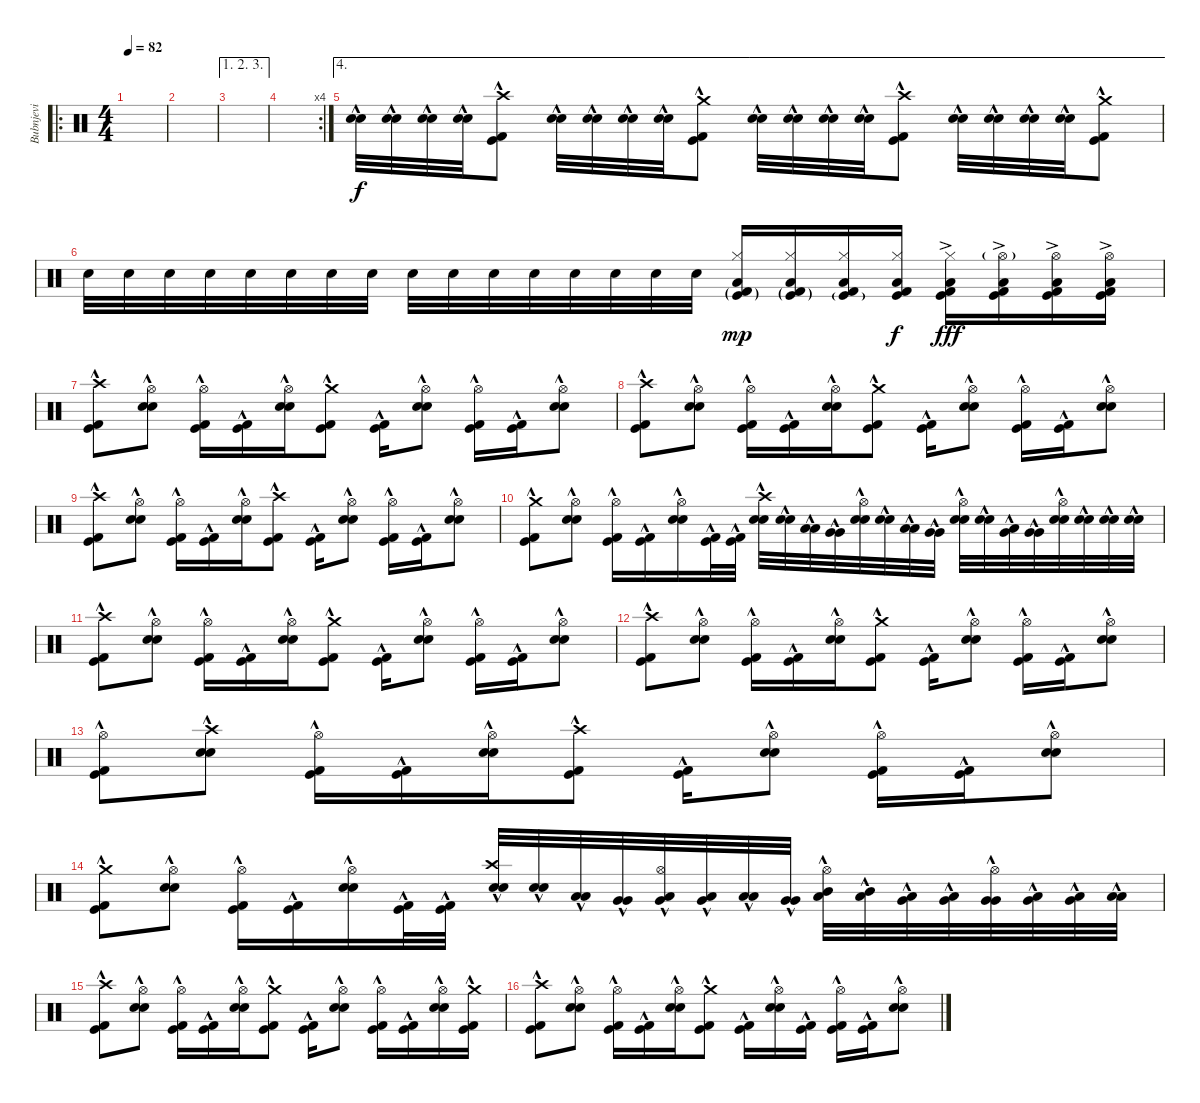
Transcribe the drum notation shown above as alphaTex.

\track ("Bubnjevi" "Bubnjevi") {instrument percussion}
\staff {score}
\articulation defaults
\ro
\ts (4 4)
\tempo 82
\clef neutral
\ks c
|
|
\ae (1 2 3)
|
\rc 4
|
\ae 4
("Electric Snare (hit)"{hac} "Electric Snare (hit)"{hac}).32 ("Electric Snare (hit)"{hac} "Electric Snare (hit)"{hac}).32 ("Electric Snare (hit)"{hac} "Electric Snare (hit)"{hac}).32 ("Electric Snare (hit)"{hac} "Electric Snare (hit)"{hac}).32 ("Crash high (hit)" "Kick (hit) 2"{hac} "Kick (hit)"{hac}).8 ("Electric Snare (hit)"{hac} "Electric Snare (hit)"{hac}).32 ("Electric Snare (hit)"{hac} "Electric Snare (hit)"{hac}).32 ("Electric Snare (hit)"{hac} "Electric Snare (hit)"{hac}).32 ("Electric Snare (hit)"{hac} "Electric Snare (hit)"{hac}).32 ("Crash medium (hit)" "Kick (hit) 2"{hac} "Kick (hit)"{hac}).8 ("Electric Snare (hit)"{hac} "Electric Snare (hit)"{hac}).32 ("Electric Snare (hit)"{hac} "Electric Snare (hit)"{hac}).32 ("Electric Snare (hit)"{hac} "Electric Snare (hit)"{hac}).32 ("Electric Snare (hit)"{hac} "Electric Snare (hit)"{hac}).32 ("Crash high (hit)" "Kick (hit) 2"{hac} "Kick (hit)"{hac}).8 ("Electric Snare (hit)"{hac} "Electric Snare (hit)"{hac}).32 ("Electric Snare (hit)"{hac} "Electric Snare (hit)"{hac}).32 ("Electric Snare (hit)"{hac} "Electric Snare (hit)"{hac}).32 ("Electric Snare (hit)"{hac} "Electric Snare (hit)"{hac}).32 ("Crash medium (hit)" "Kick (hit) 2"{hac} "Kick (hit)"{hac}).8 |
"Electric Snare (hit)".32{dy f} "Snare (hit) 2".32 "Electric Snare (hit)".32 "Snare (hit) 2".32 "Electric Snare (hit)".32 "Snare (hit) 2".32 "Electric Snare (hit)".32 "Snare (hit) 2".32 "Electric Snare (hit)".32 "Snare (hit) 2".32 "Electric Snare (hit)".32 "Snare (hit) 2".32 "Electric Snare (hit)".32 "Snare (hit) 2".32 "Electric Snare (hit)".32 "Snare (hit) 2".32 ("Hi-Hat (closed)" "Low Floor Tom (hit)" "Kick (hit) 2"{g} "Kick (hit)"{g}).16{dy mp} ("Hi-Hat (closed)" "Low Floor Tom (hit)" "Kick (hit)"{g} "Kick (hit) 2"{g}).16 ("Hi-Hat (closed)" "Low Floor Tom (hit)" "Kick (hit) 2" "Kick (hit)"{g}).16 ("Hi-Hat (closed)" "Low Floor Tom (hit)" "Kick (hit) 2" "Kick (hit)").16{dy f} ("Hi-Hat (closed)"{ac} "Low Floor Tom (hit)" "Kick (hit) 2" "Kick (hit)").16{dy fff} ("Hi-Hat (open)"{g} "Low Floor Tom (hit)" "Kick (hit) 2" "Kick (hit)"{ac}).16 ("Hi-Hat (open)" "Low Floor Tom (hit)" "Kick (hit) 2"{ac} "Kick (hit)"{ac}).16 ("Hi-Hat (open)" "Low Floor Tom (hit)"{ac} "Kick (hit) 2"{ac} "Kick (hit)"{ac}).16 |
("Crash high (hit)" "Kick (hit) 2"{hac} "Kick (hit)"{hac}).8 ("Hi-Hat (open)"{hac} "Snare (hit) 2"{hac} "Electric Snare (hit)"{hac}).8 ("Hi-Hat (open)"{hac} "Kick (hit) 2"{hac} "Kick (hit)"{hac}).16 ("Kick (hit) 2"{hac} "Kick (hit)"{hac}).16 ("Hi-Hat (open)"{hac} "Snare (hit) 2"{hac} "Electric Snare (hit)"{hac}).16 ("Crash medium (hit)" "Kick (hit) 2"{hac} "Kick (hit)"{hac}).8 ("Kick (hit) 2"{hac} "Kick (hit)"{hac}).16 ("Hi-Hat (open)"{hac} "Snare (hit) 2"{hac} "Electric Snare (hit)"{hac}).8 ("Hi-Hat (open)"{hac} "Kick (hit) 2"{hac} "Kick (hit)"{hac}).16 ("Kick (hit) 2"{hac} "Kick (hit)"{hac}).16 ("Hi-Hat (open)"{hac} "Snare (hit) 2"{hac} "Electric Snare (hit)"{hac}).8 |
("Crash high (hit)" "Kick (hit) 2"{hac} "Kick (hit)"{hac}).8 ("Hi-Hat (open)"{hac} "Snare (hit) 2"{hac} "Electric Snare (hit)"{hac}).8 ("Hi-Hat (open)"{hac} "Kick (hit) 2"{hac} "Kick (hit)"{hac}).16 ("Kick (hit) 2"{hac} "Kick (hit)"{hac}).16 ("Hi-Hat (open)"{hac} "Snare (hit) 2"{hac} "Electric Snare (hit)"{hac}).16 ("Crash medium (hit)" "Kick (hit) 2"{hac} "Kick (hit)"{hac}).8 ("Kick (hit) 2"{hac} "Kick (hit)"{hac}).16 ("Hi-Hat (open)"{hac} "Snare (hit) 2"{hac} "Electric Snare (hit)"{hac}).8 ("Hi-Hat (open)"{hac} "Kick (hit) 2"{hac} "Kick (hit)"{hac}).16 ("Kick (hit) 2"{hac} "Kick (hit)"{hac}).16 ("Hi-Hat (open)"{hac} "Snare (hit) 2"{hac} "Electric Snare (hit)"{hac}).8 |
("Crash high (hit)" "Kick (hit) 2"{hac} "Kick (hit)"{hac}).8 ("Hi-Hat (open)"{hac} "Snare (hit) 2"{hac} "Electric Snare (hit)"{hac}).8 ("Hi-Hat (open)"{hac} "Kick (hit) 2"{hac} "Kick (hit)"{hac}).16 ("Kick (hit) 2"{hac} "Kick (hit)"{hac}).16 ("Hi-Hat (open)"{hac} "Snare (hit) 2"{hac} "Electric Snare (hit)"{hac}).16 ("Crash high (hit)" "Kick (hit) 2"{hac} "Kick (hit)"{hac}).8 ("Kick (hit) 2"{hac} "Kick (hit)"{hac}).16 ("Hi-Hat (open)"{hac} "Snare (hit) 2"{hac} "Electric Snare (hit)"{hac}).8 ("Hi-Hat (open)"{hac} "Kick (hit) 2"{hac} "Kick (hit)"{hac}).16 ("Kick (hit) 2"{hac} "Kick (hit)"{hac}).16 ("Hi-Hat (open)"{hac} "Snare (hit) 2"{hac} "Electric Snare (hit)"{hac}).8 |
("Crash medium (hit)" "Kick (hit) 2"{hac} "Kick (hit)"{hac}).8 ("Hi-Hat (open)"{hac} "Snare (hit) 2"{hac} "Electric Snare (hit)"{hac}).8 ("Hi-Hat (open)"{hac} "Kick (hit) 2"{hac} "Kick (hit)"{hac}).16 ("Kick (hit) 2"{hac} "Kick (hit)"{hac}).16 ("Hi-Hat (open)"{hac} "Snare (hit) 2"{hac} "Electric Snare (hit)"{hac}).16 ("Kick (hit) 2"{hac} "Kick (hit)"{hac}).32 ("Kick (hit) 2"{hac} "Kick (hit)"{hac}).32 ("Crash high (hit)" "Snare (hit) 2"{hac} "Electric Snare (hit)"{hac}).32 ("Electric Snare (hit)"{hac} "Electric Snare (hit)"{hac}).32 ("Low Tom (hit)"{hac} "Low Tom (hit)"{hac}).32 ("Very Low Tom (hit)"{hac} "Very Low Tom (hit)"{hac}).32 ("Hi-Hat (open)"{hac} "Snare (hit) 2"{hac} "Electric Snare (hit)"{hac}).32 ("Snare (hit) 2"{hac} "Electric Snare (hit)"{hac}).32 ("Low Tom (hit)"{hac} "Low Tom (hit)"{hac}).32 ("Very Low Tom (hit)"{hac} "Very Low Tom (hit)"{hac}).32 ("Hi-Hat (open)"{hac} "Snare (hit) 2"{hac} "Electric Snare (hit)"{hac}).32 ("Snare (hit) 2"{hac} "Electric Snare (hit)"{hac}).32 ("Very Low Tom (hit)"{hac} "Low Tom (hit)"{hac}).32 ("Very Low Tom (hit)"{hac} "Very Low Tom (hit)"{hac}).32 ("Hi-Hat (open)"{hac} "Snare (hit) 2"{hac} "Electric Snare (hit)"{hac}).32 ("Snare (hit) 2"{hac} "Electric Snare (hit)"{hac}).32 ("Snare (hit) 2"{hac} "Electric Snare (hit)"{hac}).32 ("Snare (hit) 2"{hac} "Electric Snare (hit)"{hac}).32 |
("Crash high (hit)" "Kick (hit) 2"{hac} "Kick (hit)"{hac}).8 ("Hi-Hat (open)"{hac} "Snare (hit) 2"{hac} "Electric Snare (hit)"{hac}).8 ("Hi-Hat (open)"{hac} "Kick (hit) 2"{hac} "Kick (hit)"{hac}).16 ("Kick (hit) 2"{hac} "Kick (hit)"{hac}).16 ("Hi-Hat (open)"{hac} "Snare (hit) 2"{hac} "Electric Snare (hit)"{hac}).16 ("Crash medium (hit)" "Kick (hit) 2"{hac} "Kick (hit)"{hac}).8 ("Kick (hit) 2"{hac} "Kick (hit)"{hac}).16 ("Hi-Hat (open)"{hac} "Snare (hit) 2"{hac} "Electric Snare (hit)"{hac}).8 ("Hi-Hat (open)"{hac} "Kick (hit) 2"{hac} "Kick (hit)"{hac}).16 ("Kick (hit) 2"{hac} "Kick (hit)"{hac}).16 ("Hi-Hat (open)"{hac} "Snare (hit) 2"{hac} "Electric Snare (hit)"{hac}).8 |
("Crash high (hit)" "Kick (hit) 2"{hac} "Kick (hit)"{hac}).8 ("Hi-Hat (open)"{hac} "Snare (hit) 2"{hac} "Electric Snare (hit)"{hac}).8 ("Hi-Hat (open)"{hac} "Kick (hit) 2"{hac} "Kick (hit)"{hac}).16 ("Kick (hit) 2"{hac} "Kick (hit)"{hac}).16 ("Hi-Hat (open)"{hac} "Snare (hit) 2"{hac} "Electric Snare (hit)"{hac}).16 ("Crash medium (hit)" "Kick (hit) 2"{hac} "Kick (hit)"{hac}).8 ("Kick (hit) 2"{hac} "Kick (hit)"{hac}).16 ("Hi-Hat (open)"{hac} "Snare (hit) 2"{hac} "Electric Snare (hit)"{hac}).8 ("Hi-Hat (open)"{hac} "Kick (hit) 2"{hac} "Kick (hit)"{hac}).16 ("Kick (hit) 2"{hac} "Kick (hit)"{hac}).16 ("Hi-Hat (open)"{hac} "Snare (hit) 2"{hac} "Electric Snare (hit)"{hac}).8 |
("Hi-Hat (open)"{hac} "Kick (hit) 2"{hac} "Kick (hit)"{hac}).8 ("Crash high (hit)"{hac} "Snare (hit) 2"{hac} "Electric Snare (hit)"{hac}).8 ("Hi-Hat (open)"{hac} "Kick (hit) 2"{hac} "Kick (hit)"{hac}).16 ("Kick (hit) 2"{hac} "Kick (hit)"{hac}).16 ("Hi-Hat (open)"{hac} "Snare (hit) 2"{hac} "Electric Snare (hit)"{hac}).16 ("Crash high (hit)" "Kick (hit) 2"{hac} "Kick (hit)"{hac}).8 ("Kick (hit) 2"{hac} "Kick (hit)"{hac}).16 ("Hi-Hat (open)"{hac} "Snare (hit) 2"{hac} "Electric Snare (hit)"{hac}).8 ("Hi-Hat (open)"{hac} "Kick (hit) 2"{hac} "Kick (hit)"{hac}).16 ("Kick (hit) 2"{hac} "Kick (hit)"{hac}).16 ("Hi-Hat (open)"{hac} "Snare (hit) 2"{hac} "Electric Snare (hit)"{hac}).8 |
("Crash medium (hit)" "Kick (hit) 2"{hac} "Kick (hit)"{hac}).8 ("Hi-Hat (open)"{hac} "Snare (hit) 2"{hac} "Electric Snare (hit)"{hac}).8 ("Hi-Hat (open)"{hac} "Kick (hit) 2"{hac} "Kick (hit)"{hac}).16 ("Kick (hit) 2"{hac} "Kick (hit)"{hac}).16 ("Hi-Hat (open)"{hac} "Snare (hit) 2"{hac} "Electric Snare (hit)"{hac}).16 ("Kick (hit) 2"{hac} "Kick (hit)"{hac}).32 ("Kick (hit) 2"{hac} "Kick (hit)"{hac}).32 ("Crash high (hit)" "Snare (hit) 2"{hac} "Electric Snare (hit)"{hac}).32 ("Electric Snare (hit)"{hac} "Electric Snare (hit)"{hac}).32 ("Low Tom (hit)"{hac} "Low Tom (hit)"{hac}).32 ("Very Low Tom (hit)"{hac} "Very Low Tom (hit)"{hac}).32 ("Hi-Hat (open)"{hac} "Low Floor Tom (hit)"{hac} "Very Low Tom (hit)"{hac}).32 ("Low Floor Tom (hit)"{hac} "Very Low Tom (hit)"{hac}).32 ("Low Tom (hit)"{hac} "Low Tom (hit)"{hac}).32 ("Very Low Tom (hit)"{hac} "Very Low Tom (hit)"{hac}).32 ("Hi-Hat (open)"{hac} "Low Tom (hit)"{hac} "Mid Tom (hit)"{hac}).32 ("Low Tom (hit)"{hac} "Mid Tom (hit)"{hac}).32 ("Low Tom (hit)"{hac} "Very Low Tom (hit)"{hac}).32 ("Low Tom (hit)"{hac} "Very Low Tom (hit)"{hac}).32 ("Hi-Hat (open)"{hac} "Very Low Tom (hit)"{hac} "Very Low Tom (hit)"{hac}).32 ("Very Low Tom (hit)"{hac} "Low Floor Tom (hit)"{hac}).32 ("Very Low Tom (hit)"{hac} "Low Floor Tom (hit)"{hac}).32 ("Low Floor Tom (hit)"{hac} "Low Floor Tom (hit)"{hac}).32 |
("Crash high (hit)" "Kick (hit) 2"{hac} "Kick (hit)"{hac}).8 ("Hi-Hat (open)"{hac} "Snare (hit) 2"{hac} "Electric Snare (hit)"{hac}).8 ("Hi-Hat (open)"{hac} "Kick (hit) 2"{hac} "Kick (hit)"{hac}).16 ("Kick (hit) 2"{hac} "Kick (hit)"{hac}).16 ("Hi-Hat (open)"{hac} "Snare (hit) 2"{hac} "Electric Snare (hit)"{hac}).16 ("Crash medium (hit)" "Kick (hit) 2"{hac} "Kick (hit)"{hac}).8 ("Kick (hit) 2"{hac} "Kick (hit)"{hac}).16 ("Hi-Hat (open)"{hac} "Snare (hit) 2"{hac} "Electric Snare (hit)"{hac}).8 ("Hi-Hat (open)"{hac} "Kick (hit) 2"{hac} "Kick (hit)"{hac}).16 ("Kick (hit) 2"{hac} "Kick (hit)"{hac}).16 ("Hi-Hat (open)"{hac} "Snare (hit) 2"{hac} "Electric Snare (hit)"{hac}).16 ("Crash medium (hit)" "Kick (hit) 2"{hac} "Kick (hit)"{hac}).16 |
("Crash high (hit)" "Kick (hit) 2"{hac} "Kick (hit)"{hac}).8 ("Hi-Hat (open)"{hac} "Snare (hit) 2"{hac} "Electric Snare (hit)"{hac}).8 ("Hi-Hat (open)"{hac} "Kick (hit) 2"{hac} "Kick (hit)"{hac}).16 ("Kick (hit) 2"{hac} "Kick (hit)"{hac}).16 ("Hi-Hat (open)"{hac} "Snare (hit) 2"{hac} "Electric Snare (hit)"{hac}).16 ("Crash medium (hit)" "Kick (hit) 2"{hac} "Kick (hit)"{hac}).8 ("Kick (hit) 2"{hac} "Kick (hit)"{hac}).16 ("Hi-Hat (open)"{hac} "Snare (hit) 2"{hac} "Electric Snare (hit)"{hac}).16 ("Kick (hit) 2"{hac} "Kick (hit)"{hac}).16 ("Hi-Hat (open)"{hac} "Kick (hit) 2"{hac} "Kick (hit)"{hac}).16 ("Kick (hit) 2"{hac} "Kick (hit)"{hac}).16 ("Hi-Hat (open)"{hac} "Snare (hit) 2"{hac} "Electric Snare (hit)"{hac}).8
